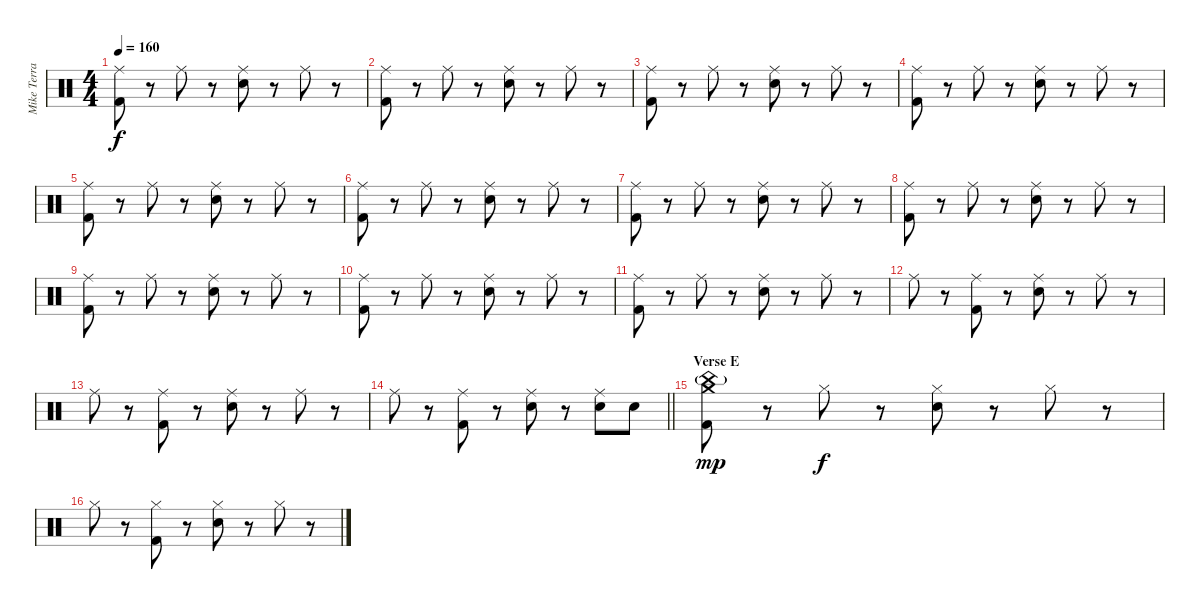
\track ("Mike Terrana" "Mike Terra") {instrument percussion}
\staff {score}
\articulation defaults
\ts (4 4)
\tempo 160
\clef neutral
\ks c
("Ride (middle)" "Kick (hit) 2").8{dy f} r.8 "Ride (middle)".8 r.8 ("Ride (middle)" "Snare (hit) 2").8 r.8 "Ride (middle)".8 r.8 |
("Ride (middle)" "Kick (hit) 2").8 r.8 "Ride (middle)".8 r.8 ("Ride (middle)" "Snare (hit) 2").8 r.8 "Ride (middle)".8 r.8 |
("Ride (middle)" "Kick (hit) 2").8 r.8 "Ride (middle)".8 r.8 ("Ride (middle)" "Snare (hit) 2").8 r.8 "Ride (middle)".8 r.8 |
("Ride (middle)" "Kick (hit) 2").8 r.8 "Ride (middle)".8 r.8 ("Ride (middle)" "Snare (hit) 2").8 r.8 "Ride (middle)".8 r.8 |
("Ride (middle)" "Kick (hit) 2").8 r.8 "Ride (middle)".8 r.8 ("Ride (middle)" "Snare (hit) 2").8 r.8 "Ride (middle)".8 r.8 |
("Ride (middle)" "Kick (hit) 2").8 r.8 "Ride (middle)".8 r.8 ("Ride (middle)" "Snare (hit) 2").8 r.8 "Ride (middle)".8 r.8 |
("Ride (middle)" "Kick (hit) 2").8 r.8 "Ride (middle)".8 r.8 ("Ride (middle)" "Snare (hit) 2").8 r.8 "Ride (middle)".8 r.8 |
("Ride (middle)" "Kick (hit) 2").8 r.8 "Ride (middle)".8 r.8 ("Ride (middle)" "Snare (hit) 2").8 r.8 "Ride (middle)".8 r.8 |
("Ride (middle)" "Kick (hit) 2").8 r.8 "Ride (middle)".8 r.8 ("Ride (middle)" "Snare (hit) 2").8 r.8 "Ride (middle)".8 r.8 |
("Ride (middle)" "Kick (hit) 2").8 r.8 "Ride (middle)".8 r.8 ("Ride (middle)" "Snare (hit) 2").8 r.8 "Ride (middle)".8 r.8 |
("Ride (middle)" "Kick (hit) 2").8 r.8 "Ride (middle)".8 r.8 ("Ride (middle)" "Snare (hit) 2").8 r.8 "Ride (middle)".8 r.8 |
"Ride (middle)".8 r.8 ("Ride (middle)" "Kick (hit) 2").8 r.8 ("Ride (middle)" "Snare (hit) 2").8 r.8 "Ride (middle)".8 r.8 |
"Ride (middle)".8 r.8 ("Ride (middle)" "Kick (hit) 2").8 r.8 ("Ride (middle)" "Snare (hit) 2").8 r.8 "Ride (middle)".8 r.8 |
\barLineRight lightlight "Ride (middle)".8
r.8 ("Ride (middle)" "Kick (hit) 2").8 r.8 ("Ride (middle)" "Snare (hit) 2").8 r.8 ("Ride (middle)" "Snare (hit) 2").8 "Snare (hit) 2".8 |
\section ("" "Verse E")
("Crash medium (hit)" "China (hit)"{g} "Kick (hit) 2").8{dy mp} r.8 "Hi-Hat (closed)".8{dy f} r.8 ("Hi-Hat (closed)" "Snare (hit) 2").8 r.8 "Hi-Hat (closed)".8 r.8 |
"Hi-Hat (closed)".8 r.8 ("Hi-Hat (closed)" "Kick (hit) 2").8 r.8 ("Hi-Hat (closed)" "Snare (hit) 2").8 r.8 "Hi-Hat (closed)".8 r.8
